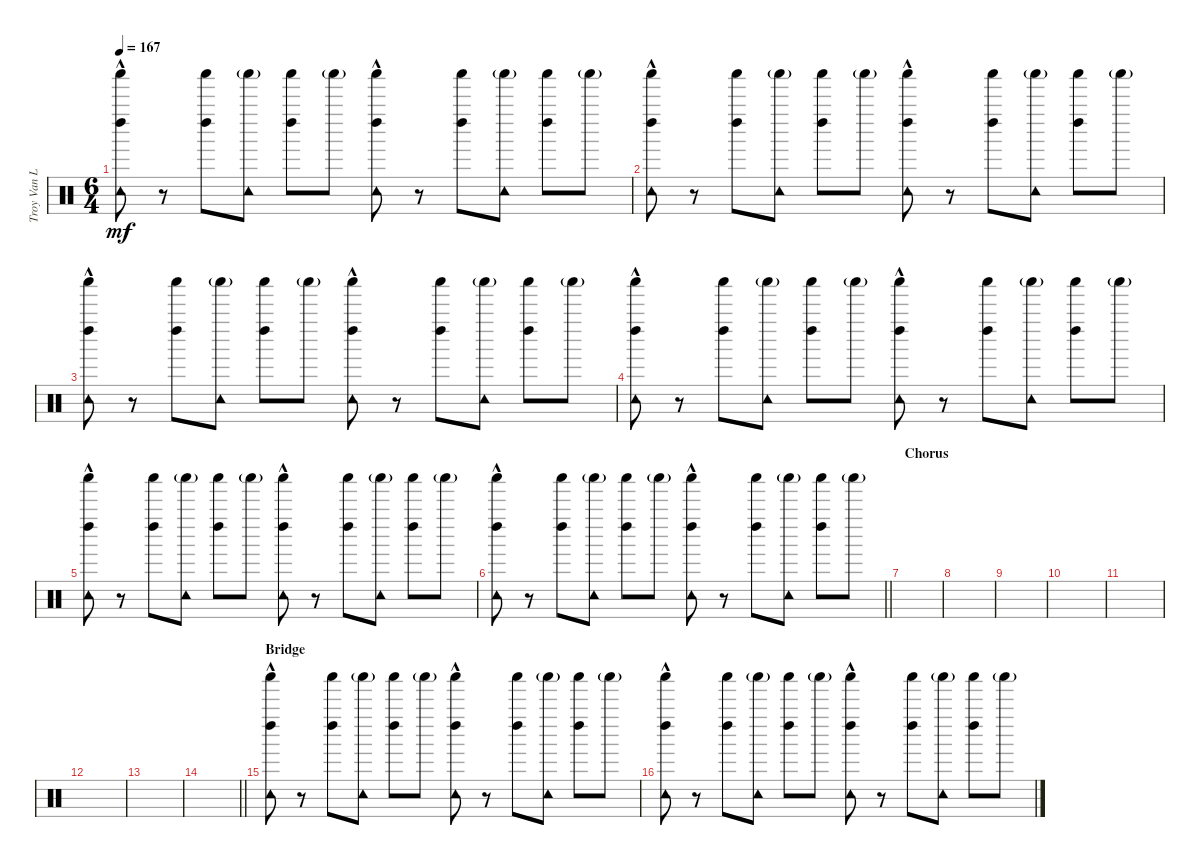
\track ("Troy Van Leeuwen (live)" "Troy Van L") {instrument percussion}
\staff {score}
\articulation defaults
\ts (6 4)
\tempo 167
\clef neutral
\ks c
("Tambourine (hit)" "Left Maraca (hit)" "Shaker (hit)"{hac}).8{dy mf} r.8 ("Left Maraca (hit)" "Shaker (hit)").8 ("Tambourine (hit)" "Shaker (hit)"{g}).8 ("Left Maraca (hit)" "Shaker (hit)").8 "Shaker (hit)"{g}.8 ("Tambourine (hit)" "Left Maraca (hit)" "Shaker (hit)"{hac}).8 r.8 ("Left Maraca (hit)" "Shaker (hit)").8 ("Tambourine (hit)" "Shaker (hit)"{g}).8 ("Left Maraca (hit)" "Shaker (hit)").8 "Shaker (hit)"{g}.8 |
("Tambourine (hit)" "Left Maraca (hit)" "Shaker (hit)"{hac}).8 r.8 ("Left Maraca (hit)" "Shaker (hit)").8 ("Tambourine (hit)" "Shaker (hit)"{g}).8 ("Left Maraca (hit)" "Shaker (hit)").8 "Shaker (hit)"{g}.8 ("Tambourine (hit)" "Left Maraca (hit)" "Shaker (hit)"{hac}).8 r.8 ("Left Maraca (hit)" "Shaker (hit)").8 ("Tambourine (hit)" "Shaker (hit)"{g}).8 ("Left Maraca (hit)" "Shaker (hit)").8 "Shaker (hit)"{g}.8 |
("Tambourine (hit)" "Left Maraca (hit)" "Shaker (hit)"{hac}).8 r.8 ("Left Maraca (hit)" "Shaker (hit)").8 ("Tambourine (hit)" "Shaker (hit)"{g}).8 ("Left Maraca (hit)" "Shaker (hit)").8 "Shaker (hit)"{g}.8 ("Tambourine (hit)" "Left Maraca (hit)" "Shaker (hit)"{hac}).8 r.8 ("Left Maraca (hit)" "Shaker (hit)").8 ("Tambourine (hit)" "Shaker (hit)"{g}).8 ("Left Maraca (hit)" "Shaker (hit)").8 "Shaker (hit)"{g}.8 |
("Tambourine (hit)" "Left Maraca (hit)" "Shaker (hit)"{hac}).8 r.8 ("Left Maraca (hit)" "Shaker (hit)").8 ("Tambourine (hit)" "Shaker (hit)"{g}).8 ("Left Maraca (hit)" "Shaker (hit)").8 "Shaker (hit)"{g}.8 ("Tambourine (hit)" "Left Maraca (hit)" "Shaker (hit)"{hac}).8 r.8 ("Left Maraca (hit)" "Shaker (hit)").8 ("Tambourine (hit)" "Shaker (hit)"{g}).8 ("Left Maraca (hit)" "Shaker (hit)").8 "Shaker (hit)"{g}.8 |
("Tambourine (hit)" "Left Maraca (hit)" "Shaker (hit)"{hac}).8 r.8 ("Left Maraca (hit)" "Shaker (hit)").8 ("Tambourine (hit)" "Shaker (hit)"{g}).8 ("Left Maraca (hit)" "Shaker (hit)").8 "Shaker (hit)"{g}.8 ("Tambourine (hit)" "Left Maraca (hit)" "Shaker (hit)"{hac}).8 r.8 ("Left Maraca (hit)" "Shaker (hit)").8 ("Tambourine (hit)" "Shaker (hit)"{g}).8 ("Left Maraca (hit)" "Shaker (hit)").8 "Shaker (hit)"{g}.8 |
\barLineRight lightlight
("Tambourine (hit)" "Left Maraca (hit)" "Shaker (hit)"{hac}).8 r.8 ("Left Maraca (hit)" "Shaker (hit)").8 ("Tambourine (hit)" "Shaker (hit)"{g}).8 ("Left Maraca (hit)" "Shaker (hit)").8 "Shaker (hit)"{g}.8 ("Tambourine (hit)" "Left Maraca (hit)" "Shaker (hit)"{hac}).8 r.8 ("Left Maraca (hit)" "Shaker (hit)").8 ("Tambourine (hit)" "Shaker (hit)"{g}).8 ("Left Maraca (hit)" "Shaker (hit)").8 "Shaker (hit)"{g}.8 |
\section ("" "Chorus")
|
|
|
|
|
|
|
\barLineRight lightlight
|
\section ("" "Bridge")
("Tambourine (hit)" "Left Maraca (hit)" "Shaker (hit)"{hac}).8 r.8 ("Left Maraca (hit)" "Shaker (hit)").8 ("Tambourine (hit)" "Shaker (hit)"{g}).8 ("Left Maraca (hit)" "Shaker (hit)").8 "Shaker (hit)"{g}.8 ("Tambourine (hit)" "Left Maraca (hit)" "Shaker (hit)"{hac}).8 r.8 ("Left Maraca (hit)" "Shaker (hit)").8 ("Tambourine (hit)" "Shaker (hit)"{g}).8 ("Left Maraca (hit)" "Shaker (hit)").8 "Shaker (hit)"{g}.8 |
("Tambourine (hit)" "Left Maraca (hit)" "Shaker (hit)"{hac}).8 r.8 ("Left Maraca (hit)" "Shaker (hit)").8 ("Tambourine (hit)" "Shaker (hit)"{g}).8 ("Left Maraca (hit)" "Shaker (hit)").8 "Shaker (hit)"{g}.8 ("Tambourine (hit)" "Left Maraca (hit)" "Shaker (hit)"{hac}).8 r.8 ("Left Maraca (hit)" "Shaker (hit)").8 ("Tambourine (hit)" "Shaker (hit)"{g}).8 ("Left Maraca (hit)" "Shaker (hit)").8 "Shaker (hit)"{g}.8
